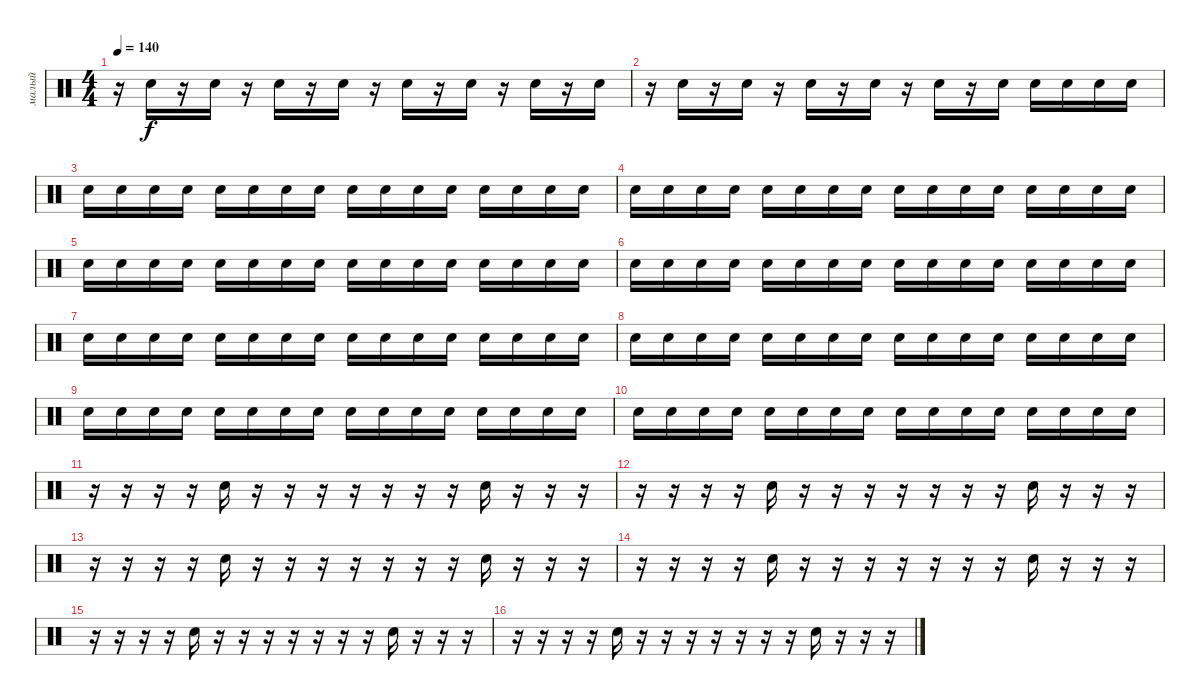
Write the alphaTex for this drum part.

\track ("малый" "малый") {mute instrument percussion}
\staff {score}
\articulation defaults
\ts (4 4)
\tempo 140
\clef neutral
\ks c
r.16{dy f} "Electric Snare (hit)".16 r.16 "Electric Snare (hit)".16 r.16 "Electric Snare (hit)".16 r.16 "Electric Snare (hit)".16 r.16 "Electric Snare (hit)".16 r.16 "Electric Snare (hit)".16 r.16 "Electric Snare (hit)".16 r.16 "Electric Snare (hit)".16 |
r.16 "Electric Snare (hit)".16 r.16 "Electric Snare (hit)".16 r.16 "Electric Snare (hit)".16 r.16 "Electric Snare (hit)".16 r.16 "Electric Snare (hit)".16 r.16 "Electric Snare (hit)".16 "Electric Snare (hit)".16 "Electric Snare (hit)".16 "Electric Snare (hit)".16 "Electric Snare (hit)".16 |
"Electric Snare (hit)".16 "Electric Snare (hit)".16 "Electric Snare (hit)".16 "Electric Snare (hit)".16 "Electric Snare (hit)".16 "Electric Snare (hit)".16 "Electric Snare (hit)".16 "Electric Snare (hit)".16 "Electric Snare (hit)".16 "Electric Snare (hit)".16 "Electric Snare (hit)".16 "Electric Snare (hit)".16 "Electric Snare (hit)".16 "Electric Snare (hit)".16 "Electric Snare (hit)".16 "Electric Snare (hit)".16 |
"Electric Snare (hit)".16 "Electric Snare (hit)".16 "Electric Snare (hit)".16 "Electric Snare (hit)".16 "Electric Snare (hit)".16 "Electric Snare (hit)".16 "Electric Snare (hit)".16 "Electric Snare (hit)".16 "Electric Snare (hit)".16 "Electric Snare (hit)".16 "Electric Snare (hit)".16 "Electric Snare (hit)".16 "Electric Snare (hit)".16 "Electric Snare (hit)".16 "Electric Snare (hit)".16 "Electric Snare (hit)".16 |
"Electric Snare (hit)".16 "Electric Snare (hit)".16 "Electric Snare (hit)".16 "Electric Snare (hit)".16 "Electric Snare (hit)".16 "Electric Snare (hit)".16 "Electric Snare (hit)".16 "Electric Snare (hit)".16 "Electric Snare (hit)".16 "Electric Snare (hit)".16 "Electric Snare (hit)".16 "Electric Snare (hit)".16 "Electric Snare (hit)".16 "Electric Snare (hit)".16 "Electric Snare (hit)".16 "Electric Snare (hit)".16 |
"Electric Snare (hit)".16 "Electric Snare (hit)".16 "Electric Snare (hit)".16 "Electric Snare (hit)".16 "Electric Snare (hit)".16 "Electric Snare (hit)".16 "Electric Snare (hit)".16 "Electric Snare (hit)".16 "Electric Snare (hit)".16 "Electric Snare (hit)".16 "Electric Snare (hit)".16 "Electric Snare (hit)".16 "Electric Snare (hit)".16 "Electric Snare (hit)".16 "Electric Snare (hit)".16 "Electric Snare (hit)".16 |
"Electric Snare (hit)".16 "Electric Snare (hit)".16 "Electric Snare (hit)".16 "Electric Snare (hit)".16 "Electric Snare (hit)".16 "Electric Snare (hit)".16 "Electric Snare (hit)".16 "Electric Snare (hit)".16 "Electric Snare (hit)".16 "Electric Snare (hit)".16 "Electric Snare (hit)".16 "Electric Snare (hit)".16 "Electric Snare (hit)".16 "Electric Snare (hit)".16 "Electric Snare (hit)".16 "Electric Snare (hit)".16 |
"Electric Snare (hit)".16 "Electric Snare (hit)".16 "Electric Snare (hit)".16 "Electric Snare (hit)".16 "Electric Snare (hit)".16 "Electric Snare (hit)".16 "Electric Snare (hit)".16 "Electric Snare (hit)".16 "Electric Snare (hit)".16 "Electric Snare (hit)".16 "Electric Snare (hit)".16 "Electric Snare (hit)".16 "Electric Snare (hit)".16 "Electric Snare (hit)".16 "Electric Snare (hit)".16 "Electric Snare (hit)".16 |
"Electric Snare (hit)".16 "Electric Snare (hit)".16 "Electric Snare (hit)".16 "Electric Snare (hit)".16 "Electric Snare (hit)".16 "Electric Snare (hit)".16 "Electric Snare (hit)".16 "Electric Snare (hit)".16 "Electric Snare (hit)".16 "Electric Snare (hit)".16 "Electric Snare (hit)".16 "Electric Snare (hit)".16 "Electric Snare (hit)".16 "Electric Snare (hit)".16 "Electric Snare (hit)".16 "Electric Snare (hit)".16 |
"Electric Snare (hit)".16 "Electric Snare (hit)".16 "Electric Snare (hit)".16 "Electric Snare (hit)".16 "Electric Snare (hit)".16 "Electric Snare (hit)".16 "Electric Snare (hit)".16 "Electric Snare (hit)".16 "Electric Snare (hit)".16 "Electric Snare (hit)".16 "Electric Snare (hit)".16 "Electric Snare (hit)".16 "Electric Snare (hit)".16 "Electric Snare (hit)".16 "Electric Snare (hit)".16 "Electric Snare (hit)".16 |
r.16 r.16 r.16 r.16 "Electric Snare (hit)".16 r.16 r.16 r.16 r.16 r.16 r.16 r.16 "Electric Snare (hit)".16 r.16 r.16 r.16 |
r.16 r.16 r.16 r.16 "Electric Snare (hit)".16 r.16 r.16 r.16 r.16 r.16 r.16 r.16 "Electric Snare (hit)".16 r.16 r.16 r.16 |
r.16 r.16 r.16 r.16 "Electric Snare (hit)".16 r.16 r.16 r.16 r.16 r.16 r.16 r.16 "Electric Snare (hit)".16 r.16 r.16 r.16 |
r.16 r.16 r.16 r.16 "Electric Snare (hit)".16 r.16 r.16 r.16 r.16 r.16 r.16 r.16 "Electric Snare (hit)".16 r.16 r.16 r.16 |
r.16 r.16 r.16 r.16 "Electric Snare (hit)".16 r.16 r.16 r.16 r.16 r.16 r.16 r.16 "Electric Snare (hit)".16 r.16 r.16 r.16 |
r.16 r.16 r.16 r.16 "Electric Snare (hit)".16 r.16 r.16 r.16 r.16 r.16 r.16 r.16 "Electric Snare (hit)".16 r.16 r.16 r.16
